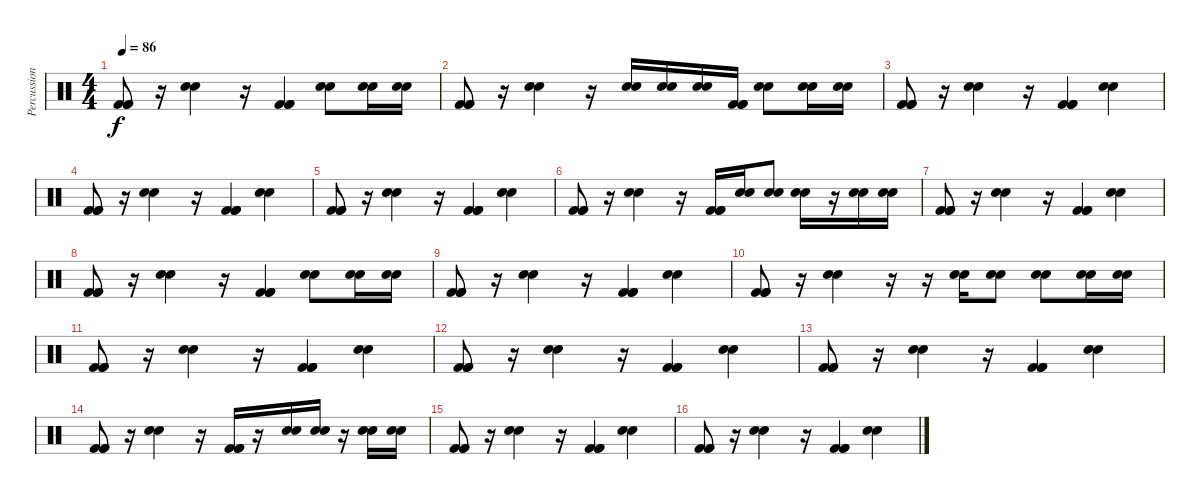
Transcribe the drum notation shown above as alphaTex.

\track ("Percussions" "Percussion") {instrument percussion}
\staff {score}
\articulation defaults
\ts (4 4)
\tempo 86
\clef neutral
\ks c
("Kick (hit) 2" "Kick (hit) 2" "Kick (hit) 2").8{dy f} r.16 ("Snare (hit) 2" "Snare (hit) 2").4 r.16 ("Kick (hit) 2" "Kick (hit) 2" "Kick (hit) 2").4 ("Snare (hit) 2" "Snare (hit) 2").8 ("Snare (hit) 2" "Snare (hit) 2").16 ("Snare (hit) 2" "Snare (hit) 2").16 |
("Kick (hit) 2" "Kick (hit) 2" "Kick (hit) 2").8 r.16 ("Snare (hit) 2" "Snare (hit) 2").4 r.16 ("Snare (hit) 2" "Snare (hit) 2").16 ("Snare (hit) 2" "Snare (hit) 2").16 ("Snare (hit) 2" "Snare (hit) 2").16 ("Kick (hit) 2" "Kick (hit) 2" "Kick (hit) 2").16 ("Snare (hit) 2" "Snare (hit) 2").8 ("Snare (hit) 2" "Snare (hit) 2").16 ("Snare (hit) 2" "Snare (hit) 2").16 |
("Kick (hit) 2" "Kick (hit) 2" "Kick (hit) 2").8 r.16 ("Snare (hit) 2" "Snare (hit) 2").4 r.16 ("Kick (hit) 2" "Kick (hit) 2" "Kick (hit) 2").4 ("Snare (hit) 2" "Snare (hit) 2").4 |
("Kick (hit) 2" "Kick (hit) 2" "Kick (hit) 2").8 r.16 ("Snare (hit) 2" "Snare (hit) 2").4 r.16 ("Kick (hit) 2" "Kick (hit) 2" "Kick (hit) 2").4 ("Snare (hit) 2" "Snare (hit) 2").4 |
("Kick (hit) 2" "Kick (hit) 2" "Kick (hit) 2").8 r.16 ("Snare (hit) 2" "Snare (hit) 2").4 r.16 ("Kick (hit) 2" "Kick (hit) 2" "Kick (hit) 2").4 ("Snare (hit) 2" "Snare (hit) 2").4 |
("Kick (hit) 2" "Kick (hit) 2" "Kick (hit) 2").8 r.16 ("Snare (hit) 2" "Snare (hit) 2").4 r.16 ("Kick (hit) 2" "Kick (hit) 2" "Kick (hit) 2").16 ("Snare (hit) 2" "Snare (hit) 2").16 ("Snare (hit) 2" "Snare (hit) 2").8 ("Snare (hit) 2" "Snare (hit) 2").16 r.16 ("Snare (hit) 2" "Snare (hit) 2").16 ("Snare (hit) 2" "Snare (hit) 2").16 |
("Kick (hit) 2" "Kick (hit) 2" "Kick (hit) 2").8 r.16 ("Snare (hit) 2" "Snare (hit) 2").4 r.16 ("Kick (hit) 2" "Kick (hit) 2" "Kick (hit) 2").4 ("Snare (hit) 2" "Snare (hit) 2").4 |
("Kick (hit) 2" "Kick (hit) 2" "Kick (hit) 2").8 r.16 ("Snare (hit) 2" "Snare (hit) 2").4 r.16 ("Kick (hit) 2" "Kick (hit) 2" "Kick (hit) 2").4 ("Snare (hit) 2" "Snare (hit) 2").8 ("Snare (hit) 2" "Snare (hit) 2").16 ("Snare (hit) 2" "Snare (hit) 2").16 |
("Kick (hit) 2" "Kick (hit) 2" "Kick (hit) 2").8 r.16 ("Snare (hit) 2" "Snare (hit) 2").4 r.16 ("Kick (hit) 2" "Kick (hit) 2" "Kick (hit) 2").4 ("Snare (hit) 2" "Snare (hit) 2").4 |
("Kick (hit) 2" "Kick (hit) 2" "Kick (hit) 2").8 r.16 ("Snare (hit) 2" "Snare (hit) 2").4 r.16 r.16 ("Snare (hit) 2" "Snare (hit) 2").16 ("Snare (hit) 2" "Snare (hit) 2").8 ("Snare (hit) 2" "Snare (hit) 2").8 ("Snare (hit) 2" "Snare (hit) 2").16 ("Snare (hit) 2" "Snare (hit) 2").16 |
("Kick (hit) 2" "Kick (hit) 2" "Kick (hit) 2").8 r.16 ("Snare (hit) 2" "Snare (hit) 2").4 r.16 ("Kick (hit) 2" "Kick (hit) 2" "Kick (hit) 2").4 ("Snare (hit) 2" "Snare (hit) 2").4 |
("Kick (hit) 2" "Kick (hit) 2" "Kick (hit) 2").8 r.16 ("Snare (hit) 2" "Snare (hit) 2").4 r.16 ("Kick (hit) 2" "Kick (hit) 2" "Kick (hit) 2").4 ("Snare (hit) 2" "Snare (hit) 2").4 |
("Kick (hit) 2" "Kick (hit) 2" "Kick (hit) 2").8 r.16 ("Snare (hit) 2" "Snare (hit) 2").4 r.16 ("Kick (hit) 2" "Kick (hit) 2" "Kick (hit) 2").4 ("Snare (hit) 2" "Snare (hit) 2").4 |
("Kick (hit) 2" "Kick (hit) 2" "Kick (hit) 2").8 r.16 ("Snare (hit) 2" "Snare (hit) 2").4 r.16 ("Kick (hit) 2" "Kick (hit) 2" "Kick (hit) 2").16 r.16 ("Snare (hit) 2" "Snare (hit) 2").16 ("Snare (hit) 2" "Snare (hit) 2").16 r.16 ("Snare (hit) 2" "Snare (hit) 2").16 ("Snare (hit) 2" "Snare (hit) 2").16 |
("Kick (hit) 2" "Kick (hit) 2" "Kick (hit) 2").8 r.16 ("Snare (hit) 2" "Snare (hit) 2").4 r.16 ("Kick (hit) 2" "Kick (hit) 2" "Kick (hit) 2").4 ("Snare (hit) 2" "Snare (hit) 2").4 |
("Kick (hit) 2" "Kick (hit) 2" "Kick (hit) 2").8 r.16 ("Snare (hit) 2" "Snare (hit) 2").4 r.16 ("Kick (hit) 2" "Kick (hit) 2" "Kick (hit) 2").4 ("Snare (hit) 2" "Snare (hit) 2").4
